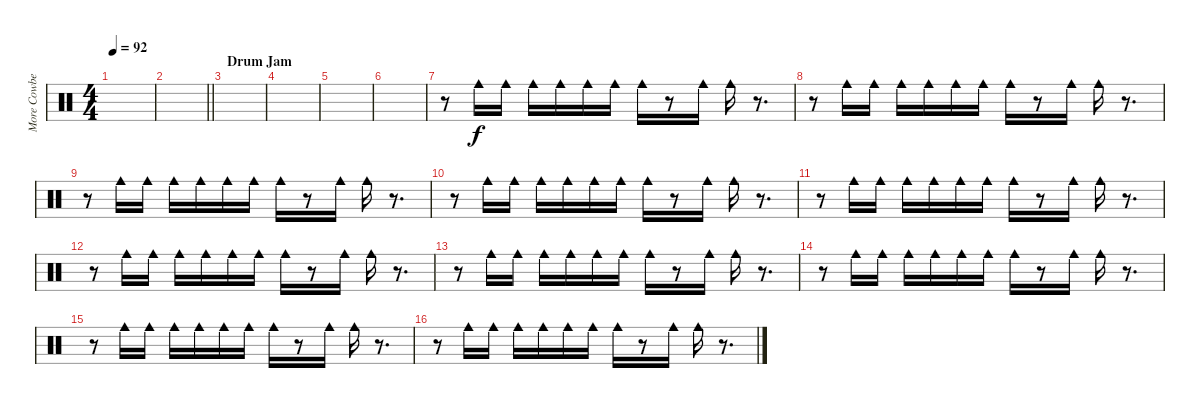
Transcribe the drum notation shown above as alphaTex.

\track ("More Cowbell!" "More Cowbe") {instrument percussion}
\staff {score}
\articulation defaults
\ts (4 4)
\tempo 92
\clef neutral
\ks c
|
\barLineRight lightlight
|
\section ("" "Drum Jam")
|
|
|
|
r.8 "Cowbell medium (hit)".16 "Cowbell medium (hit)".16 "Cowbell medium (hit)".16 "Cowbell medium (hit)".16 "Cowbell medium (hit)".16 "Cowbell medium (hit)".16 "Cowbell medium (hit)".16 r.8 "Cowbell medium (hit)".16 "Cowbell medium (hit)".16 r.8{d} |
r.8 "Cowbell medium (hit)".16 "Cowbell medium (hit)".16 "Cowbell medium (hit)".16 "Cowbell medium (hit)".16 "Cowbell medium (hit)".16 "Cowbell medium (hit)".16 "Cowbell medium (hit)".16 r.8 "Cowbell medium (hit)".16 "Cowbell medium (hit)".16 r.8{d} |
r.8 "Cowbell medium (hit)".16 "Cowbell medium (hit)".16 "Cowbell medium (hit)".16 "Cowbell medium (hit)".16 "Cowbell medium (hit)".16 "Cowbell medium (hit)".16 "Cowbell medium (hit)".16 r.8 "Cowbell medium (hit)".16 "Cowbell medium (hit)".16 r.8{d} |
r.8 "Cowbell medium (hit)".16 "Cowbell medium (hit)".16 "Cowbell medium (hit)".16 "Cowbell medium (hit)".16 "Cowbell medium (hit)".16 "Cowbell medium (hit)".16 "Cowbell medium (hit)".16 r.8 "Cowbell medium (hit)".16 "Cowbell medium (hit)".16 r.8{d} |
r.8 "Cowbell medium (hit)".16 "Cowbell medium (hit)".16 "Cowbell medium (hit)".16 "Cowbell medium (hit)".16 "Cowbell medium (hit)".16 "Cowbell medium (hit)".16 "Cowbell medium (hit)".16 r.8 "Cowbell medium (hit)".16 "Cowbell medium (hit)".16 r.8{d} |
r.8 "Cowbell medium (hit)".16 "Cowbell medium (hit)".16 "Cowbell medium (hit)".16 "Cowbell medium (hit)".16 "Cowbell medium (hit)".16 "Cowbell medium (hit)".16 "Cowbell medium (hit)".16 r.8 "Cowbell medium (hit)".16 "Cowbell medium (hit)".16 r.8{d} |
r.8 "Cowbell medium (hit)".16 "Cowbell medium (hit)".16 "Cowbell medium (hit)".16 "Cowbell medium (hit)".16 "Cowbell medium (hit)".16 "Cowbell medium (hit)".16 "Cowbell medium (hit)".16 r.8 "Cowbell medium (hit)".16 "Cowbell medium (hit)".16 r.8{d} |
r.8 "Cowbell medium (hit)".16 "Cowbell medium (hit)".16 "Cowbell medium (hit)".16 "Cowbell medium (hit)".16 "Cowbell medium (hit)".16 "Cowbell medium (hit)".16 "Cowbell medium (hit)".16 r.8 "Cowbell medium (hit)".16 "Cowbell medium (hit)".16 r.8{d} |
r.8 "Cowbell medium (hit)".16 "Cowbell medium (hit)".16 "Cowbell medium (hit)".16 "Cowbell medium (hit)".16 "Cowbell medium (hit)".16 "Cowbell medium (hit)".16 "Cowbell medium (hit)".16 r.8 "Cowbell medium (hit)".16 "Cowbell medium (hit)".16 r.8{d} |
r.8 "Cowbell medium (hit)".16 "Cowbell medium (hit)".16 "Cowbell medium (hit)".16 "Cowbell medium (hit)".16 "Cowbell medium (hit)".16 "Cowbell medium (hit)".16 "Cowbell medium (hit)".16 r.8 "Cowbell medium (hit)".16 "Cowbell medium (hit)".16 r.8{d}
